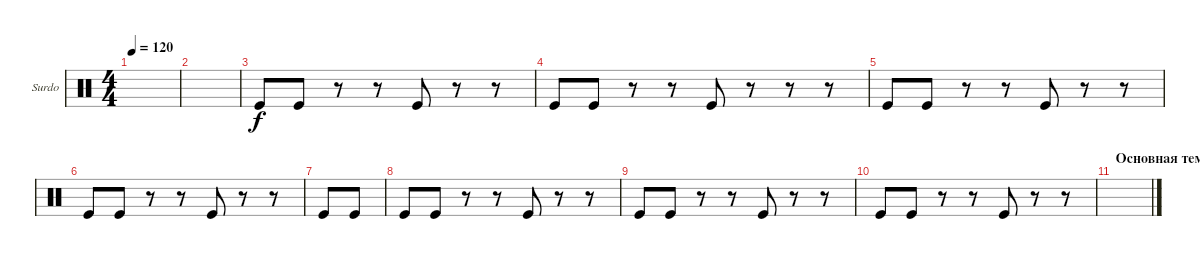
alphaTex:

\defaultSystemsLayout 4
\bracketExtendMode groupsimilarinstruments
\firstSystemTrackNameOrientation horizontal
\otherSystemsTrackNameOrientation horizontal
\track ("Surdo" "Surdo") {instrument percussion}
\staff {score}
\articulation defaults
\ts (4 4)
\tempo 120
\clef neutral
\ks c
|
|
"Kick (hit)".8 "Kick (hit)".8 r.8 r.8 "Kick (hit)".8 r.8 r.8 |
"Kick (hit)".8 "Kick (hit)".8 r.8 r.8 "Kick (hit)".8 r.8 r.8 r.8 |
"Kick (hit)".8 "Kick (hit)".8 r.8 r.8 "Kick (hit)".8 r.8 r.8 |
"Kick (hit)".8 "Kick (hit)".8 r.8 r.8 "Kick (hit)".8 r.8 r.8 |
"Kick (hit)".8 "Kick (hit)".8 |
"Kick (hit)".8 "Kick (hit)".8 r.8 r.8 "Kick (hit)".8 r.8 r.8 |
"Kick (hit)".8 "Kick (hit)".8 r.8 r.8 "Kick (hit)".8 r.8 r.8 |
"Kick (hit)".8 "Kick (hit)".8 r.8 r.8 "Kick (hit)".8 r.8 r.8 |
\section ("" "Основная тема")
